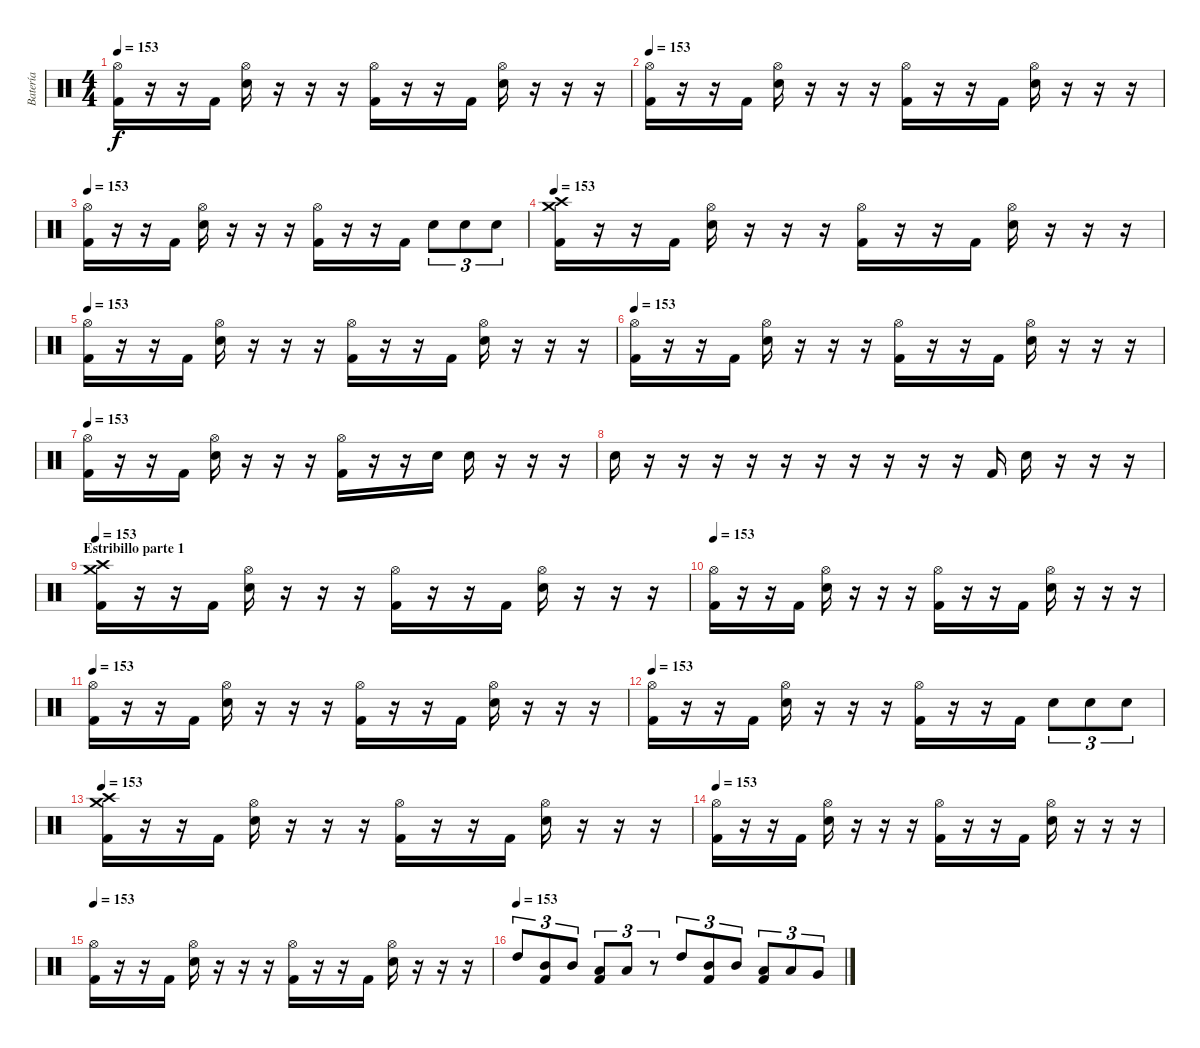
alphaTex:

\track ("Batería" "Batería") {instrument percussion}
\staff {score}
\articulation defaults
\ts (4 4)
\tempo 153
\clef neutral
\ks c
("Hi-Hat (open)" "Kick (hit) 2").16{dy f} r.16 r.16 "Kick (hit) 2".16 ("Hi-Hat (open)" "Snare (hit) 2").16 r.16 r.16 r.16 ("Hi-Hat (open)" "Kick (hit) 2").16 r.16 r.16 "Kick (hit) 2".16 ("Hi-Hat (open)" "Snare (hit) 2").16 r.16 r.16 r.16 |
\tempo 153
("Hi-Hat (open)" "Kick (hit) 2").16 r.16 r.16 "Kick (hit) 2".16 ("Hi-Hat (open)" "Snare (hit) 2").16 r.16 r.16 r.16 ("Hi-Hat (open)" "Kick (hit) 2").16 r.16 r.16 "Kick (hit) 2".16 ("Hi-Hat (open)" "Snare (hit) 2").16 r.16 r.16 r.16 |
\tempo 153
("Hi-Hat (open)" "Kick (hit) 2").16 r.16 r.16 "Kick (hit) 2".16 ("Hi-Hat (open)" "Snare (hit) 2").16 r.16 r.16 r.16 ("Hi-Hat (open)" "Kick (hit) 2").16 r.16 r.16 "Kick (hit) 2".16 "Snare (hit) 2".8{tu (3 2)} "Snare (hit) 2".8{tu (3 2)} "Snare (hit) 2".8{tu (3 2)} |
\tempo 153
("Crash medium (hit)" "Crash high (hit)" "Kick (hit) 2").16 r.16 r.16 "Kick (hit) 2".16 ("Hi-Hat (open)" "Snare (hit) 2").16 r.16 r.16 r.16 ("Hi-Hat (open)" "Kick (hit) 2").16 r.16 r.16 "Kick (hit) 2".16 ("Hi-Hat (open)" "Snare (hit) 2").16 r.16 r.16 r.16 |
\tempo 153
("Hi-Hat (open)" "Kick (hit) 2").16 r.16 r.16 "Kick (hit) 2".16 ("Hi-Hat (open)" "Snare (hit) 2").16 r.16 r.16 r.16 ("Hi-Hat (open)" "Kick (hit) 2").16 r.16 r.16 "Kick (hit) 2".16 ("Hi-Hat (open)" "Snare (hit) 2").16 r.16 r.16 r.16 |
\tempo 153
("Hi-Hat (open)" "Kick (hit) 2").16 r.16 r.16 "Kick (hit) 2".16 ("Hi-Hat (open)" "Snare (hit) 2").16 r.16 r.16 r.16 ("Hi-Hat (open)" "Kick (hit) 2").16 r.16 r.16 "Kick (hit) 2".16 ("Hi-Hat (open)" "Snare (hit) 2").16 r.16 r.16 r.16 |
\tempo 153
("Hi-Hat (open)" "Kick (hit) 2").16 r.16 r.16 "Kick (hit) 2".16 ("Hi-Hat (open)" "Snare (hit) 2").16 r.16 r.16 r.16 ("Hi-Hat (open)" "Kick (hit) 2").16 r.16 r.16 "Snare (hit) 2".16 "Snare (hit) 2".16 r.16 r.16 r.16 |
"Snare (hit) 2".16 r.16 r.16 r.16 r.16 r.16 r.16 r.16 r.16 r.16 r.16 "Kick (hit) 2".16 "Snare (hit) 2".16 r.16 r.16 r.16 |
\section ("" "Estribillo parte 1")
\tempo 153
("Crash medium (hit)" "Crash high (hit)" "Kick (hit) 2").16 r.16 r.16 "Kick (hit) 2".16 ("Hi-Hat (open)" "Snare (hit) 2").16 r.16 r.16 r.16 ("Hi-Hat (open)" "Kick (hit) 2").16 r.16 r.16 "Kick (hit) 2".16 ("Hi-Hat (open)" "Snare (hit) 2").16 r.16 r.16 r.16 |
\tempo 153
("Hi-Hat (open)" "Kick (hit) 2").16 r.16 r.16 "Kick (hit) 2".16 ("Hi-Hat (open)" "Snare (hit) 2").16 r.16 r.16 r.16 ("Hi-Hat (open)" "Kick (hit) 2").16 r.16 r.16 "Kick (hit) 2".16 ("Hi-Hat (open)" "Snare (hit) 2").16 r.16 r.16 r.16 |
\tempo 153
("Hi-Hat (open)" "Kick (hit) 2").16 r.16 r.16 "Kick (hit) 2".16 ("Hi-Hat (open)" "Snare (hit) 2").16 r.16 r.16 r.16 ("Hi-Hat (open)" "Kick (hit) 2").16 r.16 r.16 "Kick (hit) 2".16 ("Hi-Hat (open)" "Snare (hit) 2").16 r.16 r.16 r.16 |
\tempo 153
("Hi-Hat (open)" "Kick (hit) 2").16 r.16 r.16 "Kick (hit) 2".16 ("Hi-Hat (open)" "Snare (hit) 2").16 r.16 r.16 r.16 ("Hi-Hat (open)" "Kick (hit) 2").16 r.16 r.16 "Kick (hit) 2".16 "Snare (hit) 2".8{tu (3 2)} "Snare (hit) 2".8{tu (3 2)} "Snare (hit) 2".8{tu (3 2)} |
\tempo 153
("Crash medium (hit)" "Crash high (hit)" "Kick (hit) 2").16 r.16 r.16 "Kick (hit) 2".16 ("Hi-Hat (open)" "Snare (hit) 2").16 r.16 r.16 r.16 ("Hi-Hat (open)" "Kick (hit) 2").16 r.16 r.16 "Kick (hit) 2".16 ("Hi-Hat (open)" "Snare (hit) 2").16 r.16 r.16 r.16 |
\tempo 153
("Hi-Hat (open)" "Kick (hit) 2").16 r.16 r.16 "Kick (hit) 2".16 ("Hi-Hat (open)" "Snare (hit) 2").16 r.16 r.16 r.16 ("Hi-Hat (open)" "Kick (hit) 2").16 r.16 r.16 "Kick (hit) 2".16 ("Hi-Hat (open)" "Snare (hit) 2").16 r.16 r.16 r.16 |
\tempo 153
("Hi-Hat (open)" "Kick (hit) 2").16 r.16 r.16 "Kick (hit) 2".16 ("Hi-Hat (open)" "Snare (hit) 2").16 r.16 r.16 r.16 ("Hi-Hat (open)" "Kick (hit) 2").16 r.16 r.16 "Kick (hit) 2".16 ("Hi-Hat (open)" "Snare (hit) 2").16 r.16 r.16 r.16 |
\tempo (153)
"High Tom (hit)".8{tu (3 2)} ("Mid Tom (hit)" "Kick (hit) 2").8{tu (3 2)} "Mid Tom (hit)".8{tu (3 2)} ("Low Tom (hit)" "Kick (hit) 2").8{tu (3 2)} "Low Tom (hit)".8{tu (3 2)} r.8{tu (3 2)} "High Tom (hit)".8{tu (3 2)} ("Mid Tom (hit)" "Kick (hit) 2").8{tu (3 2)} "Mid Tom (hit)".8{tu (3 2)} ("Low Tom (hit)" "Kick (hit) 2").8{tu (3 2)} "Low Tom (hit)".8{tu (3 2)} "Very Low Tom (hit)".8{tu (3 2)}
